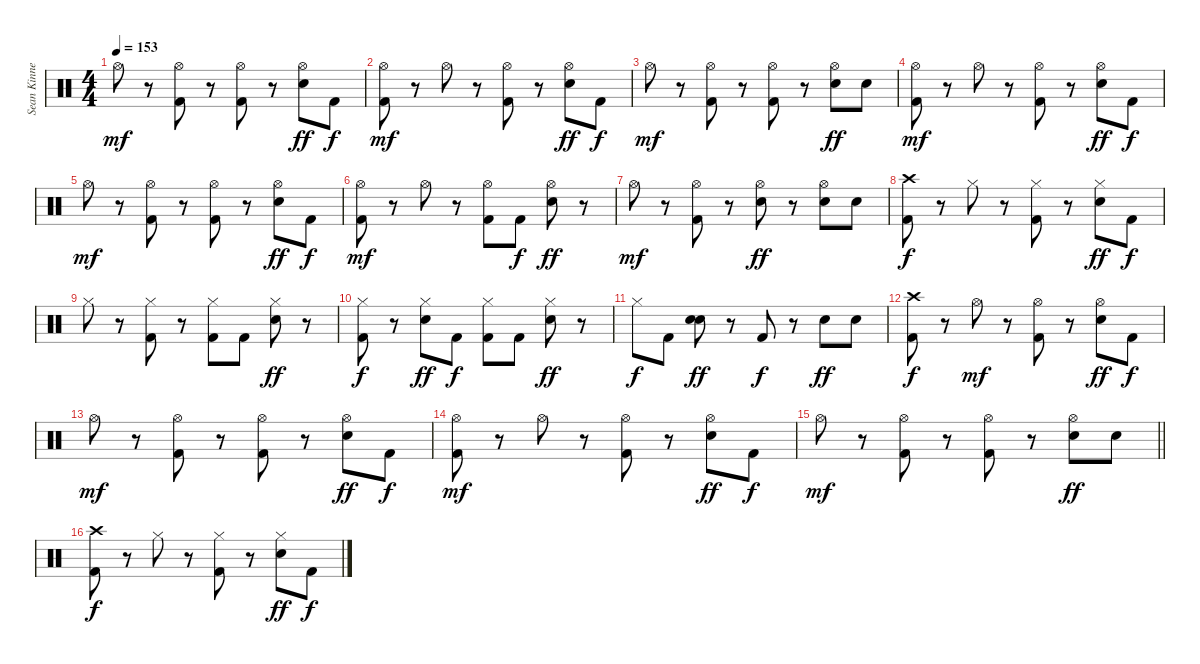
\track ("Sean Kinney - Drums" "Sean Kinne") {instrument percussion}
\staff {score}
\articulation defaults
\ts (4 4)
\tempo 153
\clef neutral
\ks c "Hi-Hat (open)".8{dy mf}
r.8 ("Hi-Hat (open)" "Kick (hit) 2").8 r.8 ("Hi-Hat (open)" "Kick (hit) 2").8 r.8 ("Hi-Hat (open)" "Snare (hit) 2").8{dy ff} "Kick (hit) 2".8{dy f} |
("Hi-Hat (open)" "Kick (hit) 2").8{dy mf} r.8 "Hi-Hat (open)".8 r.8 ("Hi-Hat (open)" "Kick (hit) 2").8 r.8 ("Hi-Hat (open)" "Snare (hit) 2").8{dy ff} "Kick (hit) 2".8{dy f} |
"Hi-Hat (open)".8{dy mf} r.8 ("Hi-Hat (open)" "Kick (hit) 2").8 r.8 ("Hi-Hat (open)" "Kick (hit) 2").8 r.8 ("Hi-Hat (open)" "Snare (hit) 2").8{dy ff} "Snare (hit) 2".8 |
("Hi-Hat (open)" "Kick (hit) 2").8{dy mf} r.8 "Hi-Hat (open)".8 r.8 ("Hi-Hat (open)" "Kick (hit) 2").8 r.8 ("Hi-Hat (open)" "Snare (hit) 2").8{dy ff} "Kick (hit) 2".8{dy f} |
"Hi-Hat (open)".8{dy mf} r.8 ("Hi-Hat (open)" "Kick (hit) 2").8 r.8 ("Hi-Hat (open)" "Kick (hit) 2").8 r.8 ("Hi-Hat (open)" "Snare (hit) 2").8{dy ff} "Kick (hit) 2".8{dy f} |
("Hi-Hat (open)" "Kick (hit) 2").8{dy mf} r.8 "Hi-Hat (open)".8 r.8 ("Hi-Hat (open)" "Kick (hit) 2").8 "Kick (hit) 2".8{dy f} ("Hi-Hat (open)" "Snare (hit) 2").8{dy ff} r.8 |
"Hi-Hat (open)".8{dy mf} r.8 ("Hi-Hat (open)" "Kick (hit) 2").8 r.8 ("Hi-Hat (open)" "Snare (hit) 2").8{dy ff} r.8 ("Hi-Hat (open)" "Snare (hit) 2").8 "Snare (hit) 2".8 |
("Crash high (hit)" "Kick (hit) 2").8{dy f} r.8 "Hi-Hat (closed)".8 r.8 ("Hi-Hat (closed)" "Kick (hit) 2").8 r.8 ("Hi-Hat (closed)" "Snare (hit) 2").8{dy ff} "Kick (hit) 2".8{dy f} |
"Hi-Hat (closed)".8 r.8 ("Hi-Hat (closed)" "Kick (hit) 2").8 r.8 ("Hi-Hat (closed)" "Kick (hit) 2").8 "Kick (hit) 2".8 ("Hi-Hat (closed)" "Snare (hit) 2").8{dy ff} r.8 |
("Hi-Hat (closed)" "Kick (hit) 2").8{dy f} r.8 ("Hi-Hat (closed)" "Snare (hit) 2").8{dy ff} "Kick (hit) 2".8{dy f} ("Hi-Hat (closed)" "Kick (hit) 2").8 "Kick (hit) 2".8 ("Hi-Hat (closed)" "Snare (hit) 2").8{dy ff} r.8 |
"Hi-Hat (closed)".8{dy f} "Kick (hit) 2".8 ("Snare (hit) 2" "Snare (hit) 2").8{dy ff} r.8 "Kick (hit) 2".8{dy f} r.8 "Snare (hit) 2".8{dy ff} "Snare (hit) 2".8 |
("Crash high (hit)" "Kick (hit) 2").8{dy f} r.8 "Hi-Hat (open)".8{dy mf} r.8 ("Hi-Hat (open)" "Kick (hit) 2").8 r.8 ("Hi-Hat (open)" "Snare (hit) 2").8{dy ff} "Kick (hit) 2".8{dy f} |
"Hi-Hat (open)".8{dy mf} r.8 ("Hi-Hat (open)" "Kick (hit) 2").8 r.8 ("Hi-Hat (open)" "Kick (hit) 2").8 r.8 ("Hi-Hat (open)" "Snare (hit) 2").8{dy ff} "Kick (hit) 2".8{dy f} |
("Hi-Hat (open)" "Kick (hit) 2").8{dy mf} r.8 "Hi-Hat (open)".8 r.8 ("Hi-Hat (open)" "Kick (hit) 2").8 r.8 ("Hi-Hat (open)" "Snare (hit) 2").8{dy ff} "Kick (hit) 2".8{dy f} |
\barLineRight lightlight "Hi-Hat (open)".8{dy mf}
r.8 ("Hi-Hat (open)" "Kick (hit) 2").8 r.8 ("Hi-Hat (open)" "Kick (hit) 2").8 r.8 ("Hi-Hat (open)" "Snare (hit) 2").8{dy ff} "Snare (hit) 2".8 |
("Crash high (hit)" "Kick (hit) 2").8{dy f} r.8 "Hi-Hat (closed)".8 r.8 ("Hi-Hat (closed)" "Kick (hit) 2").8 r.8 ("Hi-Hat (closed)" "Snare (hit) 2").8{dy ff} "Kick (hit) 2".8{dy f}
